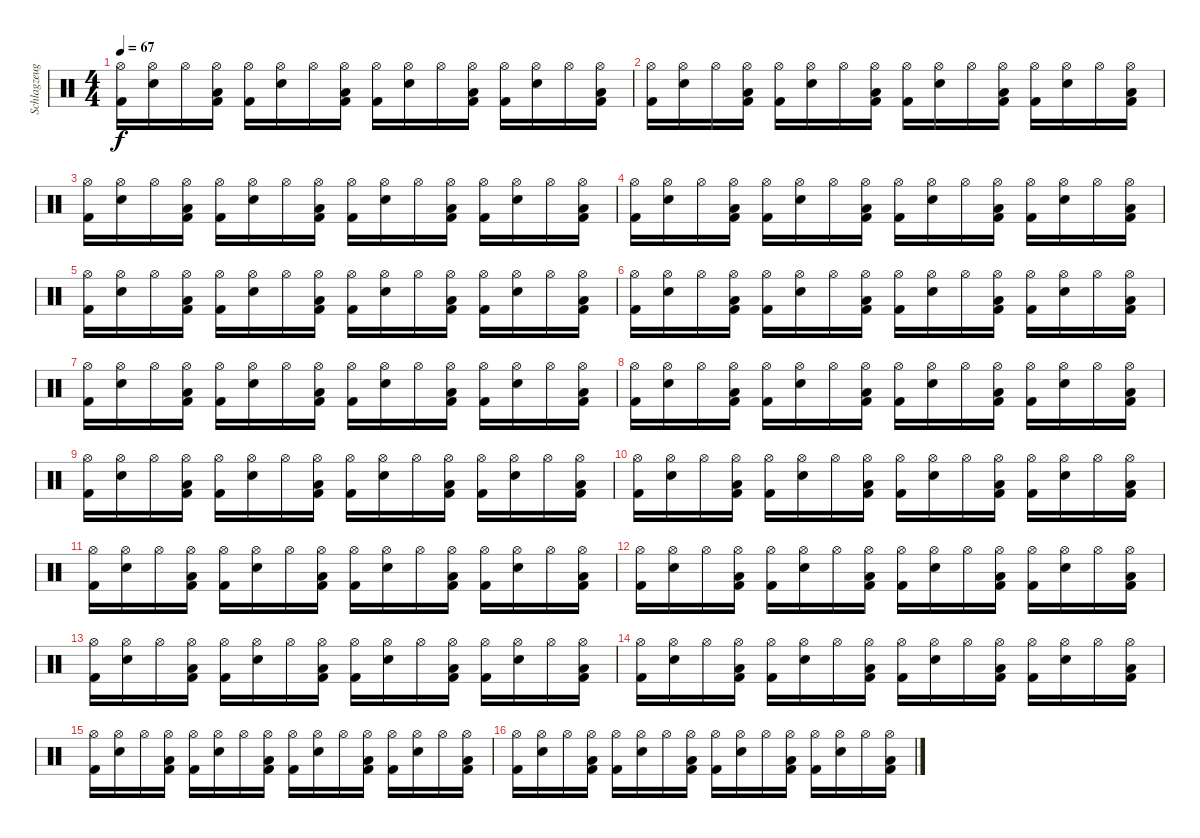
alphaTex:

\track ("Schlagzeug" "Schlagzeug") {instrument percussion}
\staff {score}
\articulation defaults
\ts (4 4)
\tempo 67
\clef neutral
\ks c
("Hi-Hat (open)" "Kick (hit) 2").16{dy f} ("Hi-Hat (open)" "Snare (hit) 2").16 "Hi-Hat (open)".16 ("Hi-Hat (open)" "Low Tom (hit)" "Kick (hit) 2").16 ("Hi-Hat (open)" "Kick (hit) 2").16 ("Hi-Hat (open)" "Snare (hit) 2").16 "Hi-Hat (open)".16 ("Hi-Hat (open)" "Low Tom (hit)" "Kick (hit) 2").16 ("Hi-Hat (open)" "Kick (hit) 2").16 ("Hi-Hat (open)" "Snare (hit) 2").16 "Hi-Hat (open)".16 ("Hi-Hat (open)" "Low Tom (hit)" "Kick (hit) 2").16 ("Hi-Hat (open)" "Kick (hit) 2").16 ("Hi-Hat (open)" "Snare (hit) 2").16 "Hi-Hat (open)".16 ("Hi-Hat (open)" "Low Tom (hit)" "Kick (hit) 2").16 |
("Hi-Hat (open)" "Kick (hit) 2").16 ("Hi-Hat (open)" "Snare (hit) 2").16 "Hi-Hat (open)".16 ("Hi-Hat (open)" "Low Tom (hit)" "Kick (hit) 2").16 ("Hi-Hat (open)" "Kick (hit) 2").16 ("Hi-Hat (open)" "Snare (hit) 2").16 "Hi-Hat (open)".16 ("Hi-Hat (open)" "Low Tom (hit)" "Kick (hit) 2").16 ("Hi-Hat (open)" "Kick (hit) 2").16 ("Hi-Hat (open)" "Snare (hit) 2").16 "Hi-Hat (open)".16 ("Hi-Hat (open)" "Low Tom (hit)" "Kick (hit) 2").16 ("Hi-Hat (open)" "Kick (hit) 2").16 ("Hi-Hat (open)" "Snare (hit) 2").16 "Hi-Hat (open)".16 ("Hi-Hat (open)" "Low Tom (hit)" "Kick (hit) 2").16 |
("Hi-Hat (open)" "Kick (hit) 2").16 ("Hi-Hat (open)" "Snare (hit) 2").16 "Hi-Hat (open)".16 ("Hi-Hat (open)" "Low Tom (hit)" "Kick (hit) 2").16 ("Hi-Hat (open)" "Kick (hit) 2").16 ("Hi-Hat (open)" "Snare (hit) 2").16 "Hi-Hat (open)".16 ("Hi-Hat (open)" "Low Tom (hit)" "Kick (hit) 2").16 ("Hi-Hat (open)" "Kick (hit) 2").16 ("Hi-Hat (open)" "Snare (hit) 2").16 "Hi-Hat (open)".16 ("Hi-Hat (open)" "Low Tom (hit)" "Kick (hit) 2").16 ("Hi-Hat (open)" "Kick (hit) 2").16 ("Hi-Hat (open)" "Snare (hit) 2").16 "Hi-Hat (open)".16 ("Hi-Hat (open)" "Low Tom (hit)" "Kick (hit) 2").16 |
("Hi-Hat (open)" "Kick (hit) 2").16 ("Hi-Hat (open)" "Snare (hit) 2").16 "Hi-Hat (open)".16 ("Hi-Hat (open)" "Low Tom (hit)" "Kick (hit) 2").16 ("Hi-Hat (open)" "Kick (hit) 2").16 ("Hi-Hat (open)" "Snare (hit) 2").16 "Hi-Hat (open)".16 ("Hi-Hat (open)" "Low Tom (hit)" "Kick (hit) 2").16 ("Hi-Hat (open)" "Kick (hit) 2").16 ("Hi-Hat (open)" "Snare (hit) 2").16 "Hi-Hat (open)".16 ("Hi-Hat (open)" "Low Tom (hit)" "Kick (hit) 2").16 ("Hi-Hat (open)" "Kick (hit) 2").16 ("Hi-Hat (open)" "Snare (hit) 2").16 "Hi-Hat (open)".16 ("Hi-Hat (open)" "Low Tom (hit)" "Kick (hit) 2").16 |
("Hi-Hat (open)" "Kick (hit) 2").16 ("Hi-Hat (open)" "Snare (hit) 2").16 "Hi-Hat (open)".16 ("Hi-Hat (open)" "Low Tom (hit)" "Kick (hit) 2").16 ("Hi-Hat (open)" "Kick (hit) 2").16 ("Hi-Hat (open)" "Snare (hit) 2").16 "Hi-Hat (open)".16 ("Hi-Hat (open)" "Low Tom (hit)" "Kick (hit) 2").16 ("Hi-Hat (open)" "Kick (hit) 2").16 ("Hi-Hat (open)" "Snare (hit) 2").16 "Hi-Hat (open)".16 ("Hi-Hat (open)" "Low Tom (hit)" "Kick (hit) 2").16 ("Hi-Hat (open)" "Kick (hit) 2").16 ("Hi-Hat (open)" "Snare (hit) 2").16 "Hi-Hat (open)".16 ("Hi-Hat (open)" "Low Tom (hit)" "Kick (hit) 2").16 |
("Hi-Hat (open)" "Kick (hit) 2").16 ("Hi-Hat (open)" "Snare (hit) 2").16 "Hi-Hat (open)".16 ("Hi-Hat (open)" "Low Tom (hit)" "Kick (hit) 2").16 ("Hi-Hat (open)" "Kick (hit) 2").16 ("Hi-Hat (open)" "Snare (hit) 2").16 "Hi-Hat (open)".16 ("Hi-Hat (open)" "Low Tom (hit)" "Kick (hit) 2").16 ("Hi-Hat (open)" "Kick (hit) 2").16 ("Hi-Hat (open)" "Snare (hit) 2").16 "Hi-Hat (open)".16 ("Hi-Hat (open)" "Low Tom (hit)" "Kick (hit) 2").16 ("Hi-Hat (open)" "Kick (hit) 2").16 ("Hi-Hat (open)" "Snare (hit) 2").16 "Hi-Hat (open)".16 ("Hi-Hat (open)" "Low Tom (hit)" "Kick (hit) 2").16 |
("Hi-Hat (open)" "Kick (hit) 2").16 ("Hi-Hat (open)" "Snare (hit) 2").16 "Hi-Hat (open)".16 ("Hi-Hat (open)" "Low Tom (hit)" "Kick (hit) 2").16 ("Hi-Hat (open)" "Kick (hit) 2").16 ("Hi-Hat (open)" "Snare (hit) 2").16 "Hi-Hat (open)".16 ("Hi-Hat (open)" "Low Tom (hit)" "Kick (hit) 2").16 ("Hi-Hat (open)" "Kick (hit) 2").16 ("Hi-Hat (open)" "Snare (hit) 2").16 "Hi-Hat (open)".16 ("Hi-Hat (open)" "Low Tom (hit)" "Kick (hit) 2").16 ("Hi-Hat (open)" "Kick (hit) 2").16 ("Hi-Hat (open)" "Snare (hit) 2").16 "Hi-Hat (open)".16 ("Hi-Hat (open)" "Low Tom (hit)" "Kick (hit) 2").16 |
("Hi-Hat (open)" "Kick (hit) 2").16 ("Hi-Hat (open)" "Snare (hit) 2").16 "Hi-Hat (open)".16 ("Hi-Hat (open)" "Low Tom (hit)" "Kick (hit) 2").16 ("Hi-Hat (open)" "Kick (hit) 2").16 ("Hi-Hat (open)" "Snare (hit) 2").16 "Hi-Hat (open)".16 ("Hi-Hat (open)" "Low Tom (hit)" "Kick (hit) 2").16 ("Hi-Hat (open)" "Kick (hit) 2").16 ("Hi-Hat (open)" "Snare (hit) 2").16 "Hi-Hat (open)".16 ("Hi-Hat (open)" "Low Tom (hit)" "Kick (hit) 2").16 ("Hi-Hat (open)" "Kick (hit) 2").16 ("Hi-Hat (open)" "Snare (hit) 2").16 "Hi-Hat (open)".16 ("Hi-Hat (open)" "Low Tom (hit)" "Kick (hit) 2").16 |
("Hi-Hat (open)" "Kick (hit) 2").16 ("Hi-Hat (open)" "Snare (hit) 2").16 "Hi-Hat (open)".16 ("Hi-Hat (open)" "Low Tom (hit)" "Kick (hit) 2").16 ("Hi-Hat (open)" "Kick (hit) 2").16 ("Hi-Hat (open)" "Snare (hit) 2").16 "Hi-Hat (open)".16 ("Hi-Hat (open)" "Low Tom (hit)" "Kick (hit) 2").16 ("Hi-Hat (open)" "Kick (hit) 2").16 ("Hi-Hat (open)" "Snare (hit) 2").16 "Hi-Hat (open)".16 ("Hi-Hat (open)" "Low Tom (hit)" "Kick (hit) 2").16 ("Hi-Hat (open)" "Kick (hit) 2").16 ("Hi-Hat (open)" "Snare (hit) 2").16 "Hi-Hat (open)".16 ("Hi-Hat (open)" "Low Tom (hit)" "Kick (hit) 2").16 |
("Hi-Hat (open)" "Kick (hit) 2").16 ("Hi-Hat (open)" "Snare (hit) 2").16 "Hi-Hat (open)".16 ("Hi-Hat (open)" "Low Tom (hit)" "Kick (hit) 2").16 ("Hi-Hat (open)" "Kick (hit) 2").16 ("Hi-Hat (open)" "Snare (hit) 2").16 "Hi-Hat (open)".16 ("Hi-Hat (open)" "Low Tom (hit)" "Kick (hit) 2").16 ("Hi-Hat (open)" "Kick (hit) 2").16 ("Hi-Hat (open)" "Snare (hit) 2").16 "Hi-Hat (open)".16 ("Hi-Hat (open)" "Low Tom (hit)" "Kick (hit) 2").16 ("Hi-Hat (open)" "Kick (hit) 2").16 ("Hi-Hat (open)" "Snare (hit) 2").16 "Hi-Hat (open)".16 ("Hi-Hat (open)" "Low Tom (hit)" "Kick (hit) 2").16 |
("Hi-Hat (open)" "Kick (hit) 2").16 ("Hi-Hat (open)" "Snare (hit) 2").16 "Hi-Hat (open)".16 ("Hi-Hat (open)" "Low Tom (hit)" "Kick (hit) 2").16 ("Hi-Hat (open)" "Kick (hit) 2").16 ("Hi-Hat (open)" "Snare (hit) 2").16 "Hi-Hat (open)".16 ("Hi-Hat (open)" "Low Tom (hit)" "Kick (hit) 2").16 ("Hi-Hat (open)" "Kick (hit) 2").16 ("Hi-Hat (open)" "Snare (hit) 2").16 "Hi-Hat (open)".16 ("Hi-Hat (open)" "Low Tom (hit)" "Kick (hit) 2").16 ("Hi-Hat (open)" "Kick (hit) 2").16 ("Hi-Hat (open)" "Snare (hit) 2").16 "Hi-Hat (open)".16 ("Hi-Hat (open)" "Low Tom (hit)" "Kick (hit) 2").16 |
("Hi-Hat (open)" "Kick (hit) 2").16 ("Hi-Hat (open)" "Snare (hit) 2").16 "Hi-Hat (open)".16 ("Hi-Hat (open)" "Low Tom (hit)" "Kick (hit) 2").16 ("Hi-Hat (open)" "Kick (hit) 2").16 ("Hi-Hat (open)" "Snare (hit) 2").16 "Hi-Hat (open)".16 ("Hi-Hat (open)" "Low Tom (hit)" "Kick (hit) 2").16 ("Hi-Hat (open)" "Kick (hit) 2").16 ("Hi-Hat (open)" "Snare (hit) 2").16 "Hi-Hat (open)".16 ("Hi-Hat (open)" "Low Tom (hit)" "Kick (hit) 2").16 ("Hi-Hat (open)" "Kick (hit) 2").16 ("Hi-Hat (open)" "Snare (hit) 2").16 "Hi-Hat (open)".16 ("Hi-Hat (open)" "Low Tom (hit)" "Kick (hit) 2").16 |
("Hi-Hat (open)" "Kick (hit) 2").16 ("Hi-Hat (open)" "Snare (hit) 2").16 "Hi-Hat (open)".16 ("Hi-Hat (open)" "Low Tom (hit)" "Kick (hit) 2").16 ("Hi-Hat (open)" "Kick (hit) 2").16 ("Hi-Hat (open)" "Snare (hit) 2").16 "Hi-Hat (open)".16 ("Hi-Hat (open)" "Low Tom (hit)" "Kick (hit) 2").16 ("Hi-Hat (open)" "Kick (hit) 2").16 ("Hi-Hat (open)" "Snare (hit) 2").16 "Hi-Hat (open)".16 ("Hi-Hat (open)" "Low Tom (hit)" "Kick (hit) 2").16 ("Hi-Hat (open)" "Kick (hit) 2").16 ("Hi-Hat (open)" "Snare (hit) 2").16 "Hi-Hat (open)".16 ("Hi-Hat (open)" "Low Tom (hit)" "Kick (hit) 2").16 |
("Hi-Hat (open)" "Kick (hit) 2").16 ("Hi-Hat (open)" "Snare (hit) 2").16 "Hi-Hat (open)".16 ("Hi-Hat (open)" "Low Tom (hit)" "Kick (hit) 2").16 ("Hi-Hat (open)" "Kick (hit) 2").16 ("Hi-Hat (open)" "Snare (hit) 2").16 "Hi-Hat (open)".16 ("Hi-Hat (open)" "Low Tom (hit)" "Kick (hit) 2").16 ("Hi-Hat (open)" "Kick (hit) 2").16 ("Hi-Hat (open)" "Snare (hit) 2").16 "Hi-Hat (open)".16 ("Hi-Hat (open)" "Low Tom (hit)" "Kick (hit) 2").16 ("Hi-Hat (open)" "Kick (hit) 2").16 ("Hi-Hat (open)" "Snare (hit) 2").16 "Hi-Hat (open)".16 ("Hi-Hat (open)" "Low Tom (hit)" "Kick (hit) 2").16 |
("Hi-Hat (open)" "Kick (hit) 2").16 ("Hi-Hat (open)" "Snare (hit) 2").16 "Hi-Hat (open)".16 ("Hi-Hat (open)" "Low Tom (hit)" "Kick (hit) 2").16 ("Hi-Hat (open)" "Kick (hit) 2").16 ("Hi-Hat (open)" "Snare (hit) 2").16 "Hi-Hat (open)".16 ("Hi-Hat (open)" "Low Tom (hit)" "Kick (hit) 2").16 ("Hi-Hat (open)" "Kick (hit) 2").16 ("Hi-Hat (open)" "Snare (hit) 2").16 "Hi-Hat (open)".16 ("Hi-Hat (open)" "Low Tom (hit)" "Kick (hit) 2").16 ("Hi-Hat (open)" "Kick (hit) 2").16 ("Hi-Hat (open)" "Snare (hit) 2").16 "Hi-Hat (open)".16 ("Hi-Hat (open)" "Low Tom (hit)" "Kick (hit) 2").16 |
("Hi-Hat (open)" "Kick (hit) 2").16 ("Hi-Hat (open)" "Snare (hit) 2").16 "Hi-Hat (open)".16 ("Hi-Hat (open)" "Low Tom (hit)" "Kick (hit) 2").16 ("Hi-Hat (open)" "Kick (hit) 2").16 ("Hi-Hat (open)" "Snare (hit) 2").16 "Hi-Hat (open)".16 ("Hi-Hat (open)" "Low Tom (hit)" "Kick (hit) 2").16 ("Hi-Hat (open)" "Kick (hit) 2").16 ("Hi-Hat (open)" "Snare (hit) 2").16 "Hi-Hat (open)".16 ("Hi-Hat (open)" "Low Tom (hit)" "Kick (hit) 2").16 ("Hi-Hat (open)" "Kick (hit) 2").16 ("Hi-Hat (open)" "Snare (hit) 2").16 "Hi-Hat (open)".16 ("Hi-Hat (open)" "Low Tom (hit)" "Kick (hit) 2").16
